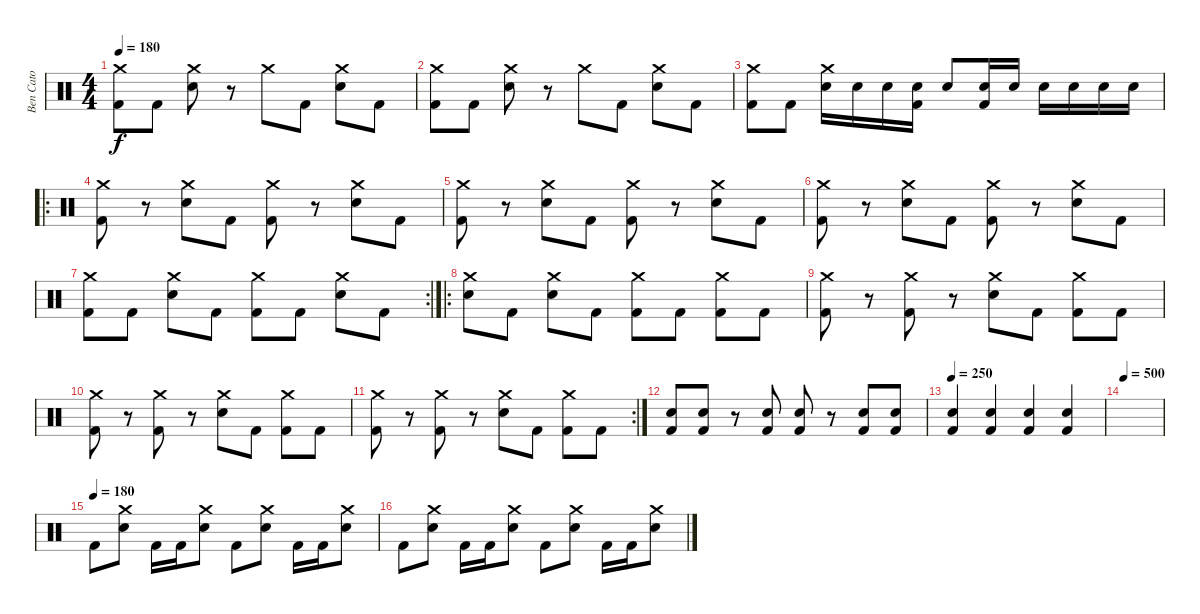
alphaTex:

\track ("Ben Cato" "Ben Cato") {instrument percussion}
\staff {score}
\articulation defaults
\ts (4 4)
\tempo 180
\clef neutral
\ks c
("Crash medium (hit)" "Kick (hit) 2").8{dy f} "Kick (hit) 2".8 ("Crash medium (hit)" "Electric Snare (hit)").8 r.8 "Crash medium (hit)".8 "Kick (hit) 2".8 ("Crash medium (hit)" "Electric Snare (hit)").8 "Kick (hit) 2".8 |
("Crash medium (hit)" "Kick (hit) 2").8 "Kick (hit) 2".8 ("Crash medium (hit)" "Electric Snare (hit)").8 r.8 "Crash medium (hit)".8 "Kick (hit) 2".8 ("Crash medium (hit)" "Electric Snare (hit)").8 "Kick (hit) 2".8 |
("Crash medium (hit)" "Kick (hit) 2").8 "Kick (hit) 2".8 ("Crash medium (hit)" "Electric Snare (hit)").16 "Electric Snare (hit)".16 "Electric Snare (hit)".16 ("Electric Snare (hit)" "Kick (hit) 2").16 "Electric Snare (hit)".8 ("Electric Snare (hit)" "Kick (hit) 2").16 "Electric Snare (hit)".16 "Electric Snare (hit)".16 "Electric Snare (hit)".16 "Electric Snare (hit)".16 "Electric Snare (hit)".16 |
\ro
("Crash medium (hit)" "Kick (hit) 2").8 r.8 ("Crash medium (hit)" "Electric Snare (hit)").8 "Kick (hit) 2".8 ("Crash medium (hit)" "Kick (hit) 2").8 r.8 ("Crash medium (hit)" "Electric Snare (hit)").8 "Kick (hit) 2".8 |
("Crash medium (hit)" "Kick (hit) 2").8 r.8 ("Crash medium (hit)" "Electric Snare (hit)").8 "Kick (hit) 2".8 ("Crash medium (hit)" "Kick (hit) 2").8 r.8 ("Crash medium (hit)" "Electric Snare (hit)").8 "Kick (hit) 2".8 |
("Crash medium (hit)" "Kick (hit) 2").8 r.8 ("Crash medium (hit)" "Electric Snare (hit)").8 "Kick (hit) 2".8 ("Crash medium (hit)" "Kick (hit) 2").8 r.8 ("Crash medium (hit)" "Electric Snare (hit)").8 "Kick (hit) 2".8 |
\rc 2
("Crash medium (hit)" "Kick (hit) 2").8 "Kick (hit) 2".8 ("Crash medium (hit)" "Electric Snare (hit)").8 "Kick (hit) 2".8 ("Crash medium (hit)" "Kick (hit) 2").8 "Kick (hit) 2".8 ("Crash medium (hit)" "Electric Snare (hit)").8 "Kick (hit) 2".8 |
\ro
("Crash medium (hit)" "Electric Snare (hit)").8 "Kick (hit) 2".8 ("Crash medium (hit)" "Electric Snare (hit)").8 "Kick (hit) 2".8 ("Crash medium (hit)" "Kick (hit) 2").8 "Kick (hit) 2".8 ("Crash medium (hit)" "Kick (hit) 2").8 "Kick (hit) 2".8 |
("Crash medium (hit)" "Kick (hit) 2").8 r.8 ("Crash medium (hit)" "Kick (hit) 2").8 r.8 ("Crash medium (hit)" "Electric Snare (hit)").8 "Kick (hit) 2".8 ("Crash medium (hit)" "Kick (hit) 2").8 "Kick (hit) 2".8 |
("Crash medium (hit)" "Kick (hit) 2").8 r.8 ("Crash medium (hit)" "Kick (hit) 2").8 r.8 ("Crash medium (hit)" "Electric Snare (hit)").8 "Kick (hit) 2".8 ("Crash medium (hit)" "Kick (hit) 2").8 "Kick (hit) 2".8 |
\rc 2
("Crash medium (hit)" "Kick (hit) 2").8 r.8 ("Crash medium (hit)" "Kick (hit) 2").8 r.8 ("Crash medium (hit)" "Electric Snare (hit)").8 "Kick (hit) 2".8 ("Crash medium (hit)" "Kick (hit) 2").8 "Kick (hit) 2".8 |
("Electric Snare (hit)" "Kick (hit) 2").8 ("Electric Snare (hit)" "Kick (hit) 2").8 r.8 ("Electric Snare (hit)" "Kick (hit) 2").8 ("Electric Snare (hit)" "Kick (hit) 2").8 r.8 ("Electric Snare (hit)" "Kick (hit) 2").8 ("Electric Snare (hit)" "Kick (hit) 2").8 |
\tempo 250
("Electric Snare (hit)" "Kick (hit) 2").4 ("Electric Snare (hit)" "Kick (hit) 2").4 ("Electric Snare (hit)" "Kick (hit) 2").4 ("Electric Snare (hit)" "Kick (hit) 2").4 |
\tempo 500
|
\tempo (180)
"Kick (hit) 2".8 ("Crash medium (hit)" "Electric Snare (hit)").8 "Kick (hit) 2".16 "Kick (hit) 2".16 ("Crash medium (hit)" "Electric Snare (hit)").8 "Kick (hit) 2".8 ("Crash medium (hit)" "Electric Snare (hit)").8 "Kick (hit) 2".16 "Kick (hit) 2".16 ("Crash medium (hit)" "Electric Snare (hit)").8 |
"Kick (hit) 2".8 ("Crash medium (hit)" "Electric Snare (hit)").8 "Kick (hit) 2".16 "Kick (hit) 2".16 ("Crash medium (hit)" "Electric Snare (hit)").8 "Kick (hit) 2".8 ("Crash medium (hit)" "Electric Snare (hit)").8 "Kick (hit) 2".16 "Kick (hit) 2".16 ("Crash medium (hit)" "Electric Snare (hit)").8
